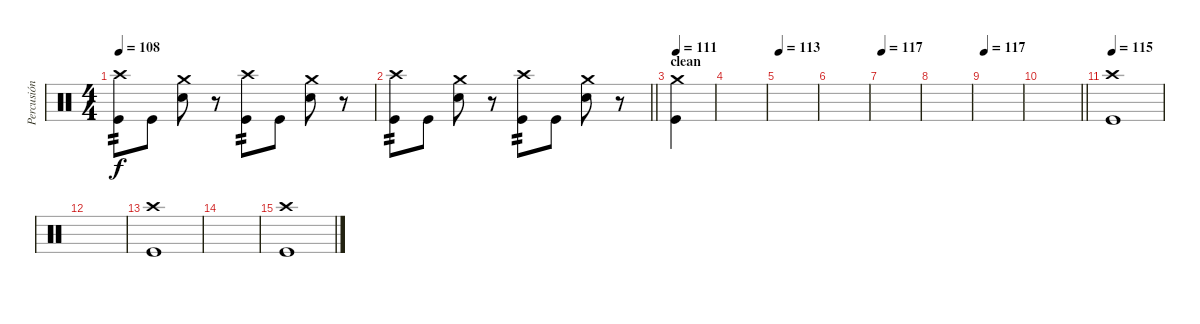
\track ("Percusión" "Percusión") {instrument percussion}
\staff {score}
\articulation defaults
\ts (4 4)
\tempo 108
\clef neutral
\ks aminor
("Crash high (hit)" "Kick (hit)").8{tp 2 dy f} "Kick (hit)".8 ("Electric Snare (hit)" "Crash medium (hit)").8 r.8 ("Crash high (hit)" "Kick (hit)").8{tp 2} "Kick (hit)".8 ("Electric Snare (hit)" "Crash medium (hit)").8 r.8 |
\barLineRight lightlight
("Crash high (hit)" "Kick (hit)").8{tp 2} "Kick (hit)".8 ("Electric Snare (hit)" "Crash medium (hit)").8 r.8 ("Crash high (hit)" "Kick (hit)").8{tp 2} "Kick (hit)".8 ("Electric Snare (hit)" "Crash medium (hit)").8 r.8 |
\section ("" "clean")
\tempo 111
("Crash medium (hit)" "Kick (hit)").4 |
|
\tempo 113
|
|
\tempo 117
|
|
\tempo 117
|
\barLineRight lightlight
|
\tempo 115
("Crash high (hit)" "Kick (hit)").1 |
|
("Crash high (hit)" "Kick (hit)").1 |
|
("Crash high (hit)" "Kick (hit)").1
